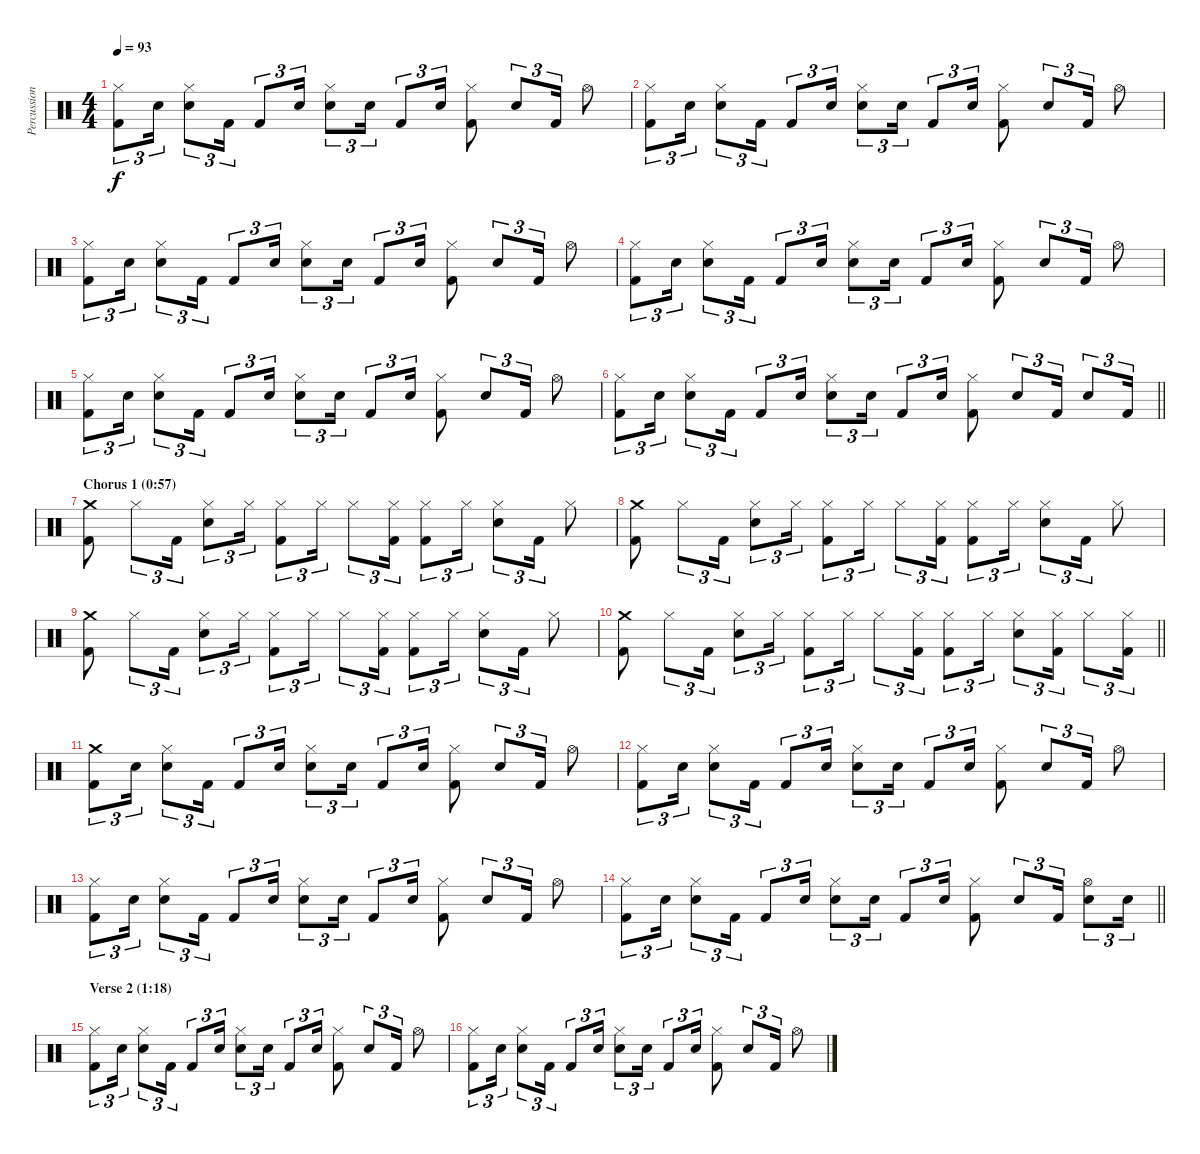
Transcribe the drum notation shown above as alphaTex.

\track ("Percussion" "Percussion") {instrument percussion}
\staff {score}
\articulation defaults
\ts (4 4)
\tempo 93
\clef neutral
\ks c
("Hi-Hat (closed)" "Kick (hit) 2").8{tu (3 2) dy f} "Electric Snare (hit)".16{tu (3 2)} ("Hi-Hat (closed)" "Electric Snare (hit)").8{tu (3 2)} "Kick (hit) 2".16{tu (3 2)} "Kick (hit) 2".8{tu (3 2)} "Electric Snare (hit)".16{tu (3 2)} ("Hi-Hat (closed)" "Electric Snare (hit)").8{tu (3 2)} "Electric Snare (hit)".16{tu (3 2)} "Kick (hit) 2".8{tu (3 2)} "Electric Snare (hit)".16{tu (3 2)} ("Hi-Hat (closed)" "Kick (hit) 2").8 "Electric Snare (hit)".8{tu (3 2)} "Kick (hit) 2".16{tu (3 2)} "Hi-Hat (open)".8 |
("Hi-Hat (closed)" "Kick (hit) 2").8{tu (3 2)} "Electric Snare (hit)".16{tu (3 2)} ("Hi-Hat (closed)" "Electric Snare (hit)").8{tu (3 2)} "Kick (hit) 2".16{tu (3 2)} "Kick (hit) 2".8{tu (3 2)} "Electric Snare (hit)".16{tu (3 2)} ("Hi-Hat (closed)" "Electric Snare (hit)").8{tu (3 2)} "Electric Snare (hit)".16{tu (3 2)} "Kick (hit) 2".8{tu (3 2)} "Electric Snare (hit)".16{tu (3 2)} ("Hi-Hat (closed)" "Kick (hit) 2").8 "Electric Snare (hit)".8{tu (3 2)} "Kick (hit) 2".16{tu (3 2)} "Hi-Hat (open)".8 |
("Hi-Hat (closed)" "Kick (hit) 2").8{tu (3 2)} "Electric Snare (hit)".16{tu (3 2)} ("Hi-Hat (closed)" "Electric Snare (hit)").8{tu (3 2)} "Kick (hit) 2".16{tu (3 2)} "Kick (hit) 2".8{tu (3 2)} "Electric Snare (hit)".16{tu (3 2)} ("Hi-Hat (closed)" "Electric Snare (hit)").8{tu (3 2)} "Electric Snare (hit)".16{tu (3 2)} "Kick (hit) 2".8{tu (3 2)} "Electric Snare (hit)".16{tu (3 2)} ("Hi-Hat (closed)" "Kick (hit) 2").8 "Electric Snare (hit)".8{tu (3 2)} "Kick (hit) 2".16{tu (3 2)} "Hi-Hat (open)".8 |
("Hi-Hat (closed)" "Kick (hit) 2").8{tu (3 2)} "Electric Snare (hit)".16{tu (3 2)} ("Hi-Hat (closed)" "Electric Snare (hit)").8{tu (3 2)} "Kick (hit) 2".16{tu (3 2)} "Kick (hit) 2".8{tu (3 2)} "Electric Snare (hit)".16{tu (3 2)} ("Hi-Hat (closed)" "Electric Snare (hit)").8{tu (3 2)} "Electric Snare (hit)".16{tu (3 2)} "Kick (hit) 2".8{tu (3 2)} "Electric Snare (hit)".16{tu (3 2)} ("Hi-Hat (closed)" "Kick (hit) 2").8 "Electric Snare (hit)".8{tu (3 2)} "Kick (hit) 2".16{tu (3 2)} "Hi-Hat (open)".8 |
("Hi-Hat (closed)" "Kick (hit) 2").8{tu (3 2)} "Electric Snare (hit)".16{tu (3 2)} ("Hi-Hat (closed)" "Electric Snare (hit)").8{tu (3 2)} "Kick (hit) 2".16{tu (3 2)} "Kick (hit) 2".8{tu (3 2)} "Electric Snare (hit)".16{tu (3 2)} ("Hi-Hat (closed)" "Electric Snare (hit)").8{tu (3 2)} "Electric Snare (hit)".16{tu (3 2)} "Kick (hit) 2".8{tu (3 2)} "Electric Snare (hit)".16{tu (3 2)} ("Hi-Hat (closed)" "Kick (hit) 2").8 "Electric Snare (hit)".8{tu (3 2)} "Kick (hit) 2".16{tu (3 2)} "Hi-Hat (open)".8 |
\barLineRight lightlight
("Hi-Hat (closed)" "Kick (hit) 2").8{tu (3 2)} "Electric Snare (hit)".16{tu (3 2)} ("Hi-Hat (closed)" "Electric Snare (hit)").8{tu (3 2)} "Kick (hit) 2".16{tu (3 2)} "Kick (hit) 2".8{tu (3 2)} "Electric Snare (hit)".16{tu (3 2)} ("Hi-Hat (closed)" "Electric Snare (hit)").8{tu (3 2)} "Electric Snare (hit)".16{tu (3 2)} "Kick (hit) 2".8{tu (3 2)} "Electric Snare (hit)".16{tu (3 2)} ("Hi-Hat (closed)" "Kick (hit) 2").8 "Electric Snare (hit)".8{tu (3 2)} "Kick (hit) 2".16{tu (3 2)} "Electric Snare (hit)".8{tu (3 2)} "Kick (hit) 2".16{tu (3 2)} |
\section ("" "Chorus 1 (0:57)")
("Crash medium (hit)" "Kick (hit) 2").8 "Hi-Hat (closed)".8{tu (3 2)} "Kick (hit) 2".16{tu (3 2)} ("Hi-Hat (closed)" "Electric Snare (hit)").8{tu (3 2)} "Hi-Hat (closed)".16{tu (3 2)} ("Hi-Hat (closed)" "Kick (hit) 2").8{tu (3 2)} "Hi-Hat (closed)".16{tu (3 2)} "Hi-Hat (closed)".8{tu (3 2)} ("Hi-Hat (closed)" "Kick (hit) 2").16{tu (3 2)} ("Hi-Hat (closed)" "Kick (hit) 2").8{tu (3 2)} "Hi-Hat (closed)".16{tu (3 2)} ("Hi-Hat (closed)" "Electric Snare (hit)").8{tu (3 2)} "Kick (hit) 2".16{tu (3 2)} "Hi-Hat (closed)".8 |
("Crash medium (hit)" "Kick (hit) 2").8 "Hi-Hat (closed)".8{tu (3 2)} "Kick (hit) 2".16{tu (3 2)} ("Hi-Hat (closed)" "Electric Snare (hit)").8{tu (3 2)} "Hi-Hat (closed)".16{tu (3 2)} ("Hi-Hat (closed)" "Kick (hit) 2").8{tu (3 2)} "Hi-Hat (closed)".16{tu (3 2)} "Hi-Hat (closed)".8{tu (3 2)} ("Hi-Hat (closed)" "Kick (hit) 2").16{tu (3 2)} ("Hi-Hat (closed)" "Kick (hit) 2").8{tu (3 2)} "Hi-Hat (closed)".16{tu (3 2)} ("Hi-Hat (closed)" "Electric Snare (hit)").8{tu (3 2)} "Kick (hit) 2".16{tu (3 2)} "Hi-Hat (closed)".8 |
("Crash medium (hit)" "Kick (hit) 2").8 "Hi-Hat (closed)".8{tu (3 2)} "Kick (hit) 2".16{tu (3 2)} ("Hi-Hat (closed)" "Electric Snare (hit)").8{tu (3 2)} "Hi-Hat (closed)".16{tu (3 2)} ("Hi-Hat (closed)" "Kick (hit) 2").8{tu (3 2)} "Hi-Hat (closed)".16{tu (3 2)} "Hi-Hat (closed)".8{tu (3 2)} ("Hi-Hat (closed)" "Kick (hit) 2").16{tu (3 2)} ("Hi-Hat (closed)" "Kick (hit) 2").8{tu (3 2)} "Hi-Hat (closed)".16{tu (3 2)} ("Hi-Hat (closed)" "Electric Snare (hit)").8{tu (3 2)} "Kick (hit) 2".16{tu (3 2)} "Hi-Hat (closed)".8 |
\barLineRight lightlight
("Crash medium (hit)" "Kick (hit) 2").8 "Hi-Hat (closed)".8{tu (3 2)} "Kick (hit) 2".16{tu (3 2)} ("Hi-Hat (closed)" "Electric Snare (hit)").8{tu (3 2)} "Hi-Hat (closed)".16{tu (3 2)} ("Hi-Hat (closed)" "Kick (hit) 2").8{tu (3 2)} "Hi-Hat (closed)".16{tu (3 2)} "Hi-Hat (closed)".8{tu (3 2)} ("Hi-Hat (closed)" "Kick (hit) 2").16{tu (3 2)} ("Hi-Hat (closed)" "Kick (hit) 2").8{tu (3 2)} "Hi-Hat (closed)".16{tu (3 2)} ("Hi-Hat (closed)" "Electric Snare (hit)").8{tu (3 2)} ("Hi-Hat (closed)" "Kick (hit) 2").16{tu (3 2)} "Hi-Hat (closed)".8{tu (3 2)} ("Hi-Hat (closed)" "Kick (hit) 2").16{tu (3 2)} |
("Crash medium (hit)" "Kick (hit) 2").8{tu (3 2)} "Electric Snare (hit)".16{tu (3 2)} ("Hi-Hat (closed)" "Electric Snare (hit)").8{tu (3 2)} "Kick (hit) 2".16{tu (3 2)} "Kick (hit) 2".8{tu (3 2)} "Electric Snare (hit)".16{tu (3 2)} ("Hi-Hat (closed)" "Electric Snare (hit)").8{tu (3 2)} "Electric Snare (hit)".16{tu (3 2)} "Kick (hit) 2".8{tu (3 2)} "Electric Snare (hit)".16{tu (3 2)} ("Hi-Hat (closed)" "Kick (hit) 2").8 "Electric Snare (hit)".8{tu (3 2)} "Kick (hit) 2".16{tu (3 2)} "Hi-Hat (open)".8 |
("Hi-Hat (closed)" "Kick (hit) 2").8{tu (3 2)} "Electric Snare (hit)".16{tu (3 2)} ("Hi-Hat (closed)" "Electric Snare (hit)").8{tu (3 2)} "Kick (hit) 2".16{tu (3 2)} "Kick (hit) 2".8{tu (3 2)} "Electric Snare (hit)".16{tu (3 2)} ("Hi-Hat (closed)" "Electric Snare (hit)").8{tu (3 2)} "Electric Snare (hit)".16{tu (3 2)} "Kick (hit) 2".8{tu (3 2)} "Electric Snare (hit)".16{tu (3 2)} ("Hi-Hat (closed)" "Kick (hit) 2").8 "Electric Snare (hit)".8{tu (3 2)} "Kick (hit) 2".16{tu (3 2)} "Hi-Hat (open)".8 |
("Hi-Hat (closed)" "Kick (hit) 2").8{tu (3 2)} "Electric Snare (hit)".16{tu (3 2)} ("Hi-Hat (closed)" "Electric Snare (hit)").8{tu (3 2)} "Kick (hit) 2".16{tu (3 2)} "Kick (hit) 2".8{tu (3 2)} "Electric Snare (hit)".16{tu (3 2)} ("Hi-Hat (closed)" "Electric Snare (hit)").8{tu (3 2)} "Electric Snare (hit)".16{tu (3 2)} "Kick (hit) 2".8{tu (3 2)} "Electric Snare (hit)".16{tu (3 2)} ("Hi-Hat (closed)" "Kick (hit) 2").8 "Electric Snare (hit)".8{tu (3 2)} "Kick (hit) 2".16{tu (3 2)} "Hi-Hat (open)".8 |
\barLineRight lightlight
("Hi-Hat (closed)" "Kick (hit) 2").8{tu (3 2)} "Electric Snare (hit)".16{tu (3 2)} ("Hi-Hat (closed)" "Electric Snare (hit)").8{tu (3 2)} "Kick (hit) 2".16{tu (3 2)} "Kick (hit) 2".8{tu (3 2)} "Electric Snare (hit)".16{tu (3 2)} ("Hi-Hat (closed)" "Electric Snare (hit)").8{tu (3 2)} "Electric Snare (hit)".16{tu (3 2)} "Kick (hit) 2".8{tu (3 2)} "Electric Snare (hit)".16{tu (3 2)} ("Hi-Hat (closed)" "Kick (hit) 2").8 "Electric Snare (hit)".8{tu (3 2)} "Kick (hit) 2".16{tu (3 2)} ("Hi-Hat (open)" "Electric Snare (hit)").8{tu (3 2)} "Electric Snare (hit)".16{tu (3 2)} |
\section ("" "Verse 2 (1:18)")
("Hi-Hat (closed)" "Kick (hit) 2").8{tu (3 2)} "Electric Snare (hit)".16{tu (3 2)} ("Hi-Hat (closed)" "Electric Snare (hit)").8{tu (3 2)} "Kick (hit) 2".16{tu (3 2)} "Kick (hit) 2".8{tu (3 2)} "Electric Snare (hit)".16{tu (3 2)} ("Hi-Hat (closed)" "Electric Snare (hit)").8{tu (3 2)} "Electric Snare (hit)".16{tu (3 2)} "Kick (hit) 2".8{tu (3 2)} "Electric Snare (hit)".16{tu (3 2)} ("Hi-Hat (closed)" "Kick (hit) 2").8 "Electric Snare (hit)".8{tu (3 2)} "Kick (hit) 2".16{tu (3 2)} "Hi-Hat (open)".8 |
("Hi-Hat (closed)" "Kick (hit) 2").8{tu (3 2)} "Electric Snare (hit)".16{tu (3 2)} ("Hi-Hat (closed)" "Electric Snare (hit)").8{tu (3 2)} "Kick (hit) 2".16{tu (3 2)} "Kick (hit) 2".8{tu (3 2)} "Electric Snare (hit)".16{tu (3 2)} ("Hi-Hat (closed)" "Electric Snare (hit)").8{tu (3 2)} "Electric Snare (hit)".16{tu (3 2)} "Kick (hit) 2".8{tu (3 2)} "Electric Snare (hit)".16{tu (3 2)} ("Hi-Hat (closed)" "Kick (hit) 2").8 "Electric Snare (hit)".8{tu (3 2)} "Kick (hit) 2".16{tu (3 2)} "Hi-Hat (open)".8
